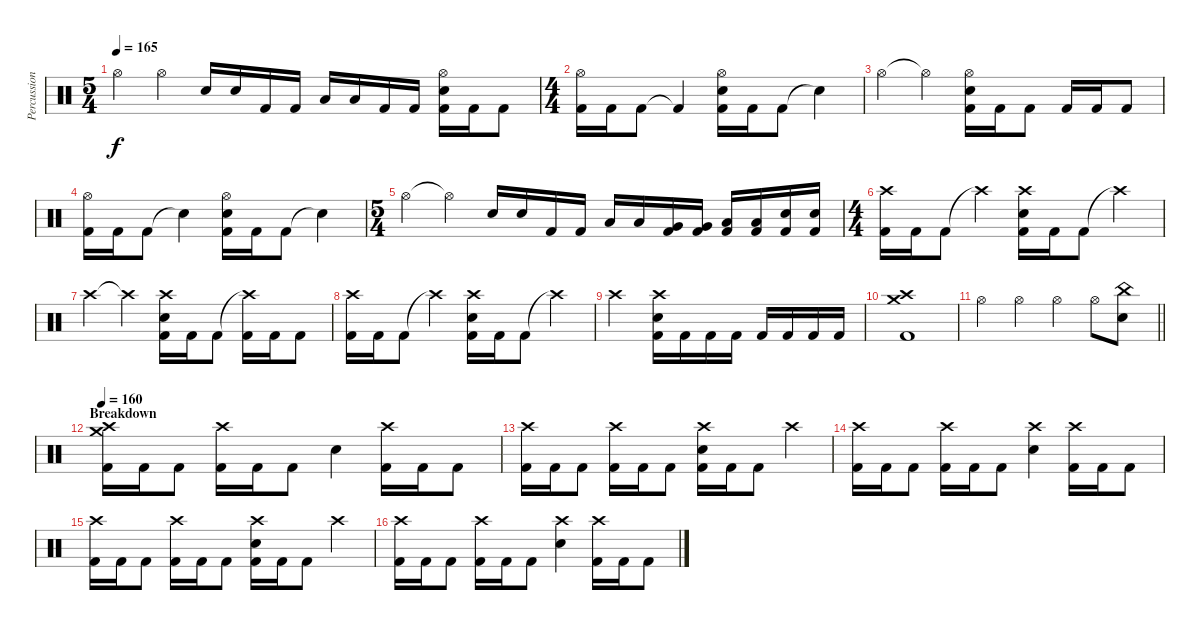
\track ("Percussion" "Percussion") {instrument percussion}
\staff {score}
\articulation defaults
\ts (5 4)
\tempo 165
\clef neutral
\ks c "Hi-Hat (open)".4{dy f} "Hi-Hat (open)".4 "Electric Snare (hit)".16 "Electric Snare (hit)".16 "Kick (hit) 2".16 "Kick (hit) 2".16 "Low Tom (hit)".16 "Low Tom (hit)".16 "Kick (hit) 2".16 "Kick (hit) 2".16
("Hi-Hat (open)" "Electric Snare (hit)" "Kick (hit) 2").16 "Kick (hit) 2".16 "Kick (hit) 2".8 |
\ts (4 4)
("Hi-Hat (open)" "Kick (hit) 2").16 "Kick (hit) 2".16 "Kick (hit) 2".8 "Kick (hit) 2"{t}.4 ("Hi-Hat (open)" "Electric Snare (hit)" "Kick (hit) 2").16 "Kick (hit) 2".16 "Kick (hit) 2".8 "Snare (hit)"{t}.4 |
"Hi-Hat (open)".4 "Hi-Hat (open)"{t}.4 ("Hi-Hat (open)" "Electric Snare (hit)" "Kick (hit) 2").16 "Kick (hit) 2".16 "Kick (hit) 2".8 "Kick (hit) 2".16 "Kick (hit) 2".16 "Kick (hit) 2".8 |
("Hi-Hat (open)" "Kick (hit) 2").16 "Kick (hit) 2".16 "Kick (hit) 2".8 "Snare (hit)"{t}.4 ("Hi-Hat (open)" "Electric Snare (hit)" "Kick (hit) 2").16 "Kick (hit) 2".16 "Kick (hit) 2".8 "Snare (hit)"{t}.4 |
\ts (5 4)
"Hi-Hat (open)".4 "Hi-Hat (open)"{t}.4 "Electric Snare (hit)".16 "Electric Snare (hit)".16 "Kick (hit) 2".16 "Kick (hit) 2".16 "Low Tom (hit)".16 "Low Tom (hit)".16 ("Very Low Tom (hit)" "Kick (hit) 2").16 ("Very Low Tom (hit)" "Kick (hit) 2").16 ("Low Floor Tom (hit)" "Kick (hit) 2").16 ("Low Floor Tom (hit)" "Kick (hit) 2").16 ("Electric Snare (hit)" "Kick (hit) 2").16 ("Electric Snare (hit)" "Kick (hit) 2").16 |
\ts (4 4)
("Crash high (hit)" "Kick (hit) 2").16 "Kick (hit) 2".16 "Kick (hit) 2".8 "Crash high (hit)"{t}.4 ("Crash high (hit)" "Electric Snare (hit)" "Kick (hit) 2").16 "Kick (hit) 2".16 "Kick (hit) 2".8 "Crash high (hit)"{t}.4 |
"Crash high (hit)".4 "Crash high (hit)"{t}.4 ("Crash high (hit)" "Electric Snare (hit)" "Kick (hit) 2").16 "Kick (hit) 2".16 "Kick (hit) 2".8 ("Crash high (hit)"{t} "Kick (hit) 2").16 "Kick (hit) 2".16 "Kick (hit) 2".8 |
("Crash high (hit)" "Kick (hit) 2").16 "Kick (hit) 2".16 "Kick (hit) 2".8 "Crash high (hit)"{t}.4 ("Crash high (hit)" "Electric Snare (hit)" "Kick (hit) 2").16 "Kick (hit) 2".16 "Kick (hit) 2".8 "Crash high (hit)"{t}.4 |
"Crash high (hit)".2 ("Crash high (hit)" "Electric Snare (hit)" "Kick (hit) 2").16 "Kick (hit) 2".16 "Kick (hit) 2".16 "Kick (hit) 2".16 "Kick (hit) 2".16 "Kick (hit) 2".16 "Kick (hit) 2".16 "Kick (hit) 2".16 |
("Crash medium (hit)" "Crash high (hit)" "Kick (hit) 2").1 |
\barLineRight lightlight "Hi-Hat (open)".4 "Hi-Hat (open)".4 "Hi-Hat (open)".4 "Hi-Hat (open)".8
("China (hit)" "Electric Snare (hit)").8 |
\section ("" "Breakdown")
\tempo 160
("Crash medium (hit)" "Crash high (hit)" "Kick (hit) 2").16 "Kick (hit) 2".16 "Kick (hit) 2".8 ("Crash high (hit)" "Kick (hit) 2").16 "Kick (hit) 2".16 "Kick (hit) 2".8 "Electric Snare (hit)".4 ("Crash high (hit)" "Kick (hit) 2").16 "Kick (hit) 2".16 "Kick (hit) 2".8 |
("Crash high (hit)" "Kick (hit) 2").16 "Kick (hit) 2".16 "Kick (hit) 2".8 ("Crash high (hit)" "Kick (hit) 2").16 "Kick (hit) 2".16 "Kick (hit) 2".8 ("Crash high (hit)" "Electric Snare (hit)" "Kick (hit) 2").16 "Kick (hit) 2".16 "Kick (hit) 2".8 "Crash high (hit)".4 |
("Crash high (hit)" "Kick (hit) 2").16 "Kick (hit) 2".16 "Kick (hit) 2".8 ("Crash high (hit)" "Kick (hit) 2").16 "Kick (hit) 2".16 "Kick (hit) 2".8 ("Crash high (hit)" "Electric Snare (hit)").4 ("Crash high (hit)" "Kick (hit) 2").16 "Kick (hit) 2".16 "Kick (hit) 2".8 |
("Crash high (hit)" "Kick (hit) 2").16 "Kick (hit) 2".16 "Kick (hit) 2".8 ("Crash high (hit)" "Kick (hit) 2").16 "Kick (hit) 2".16 "Kick (hit) 2".8 ("Crash high (hit)" "Electric Snare (hit)" "Kick (hit) 2").16 "Kick (hit) 2".16 "Kick (hit) 2".8 "Crash high (hit)".4 |
("Crash high (hit)" "Kick (hit) 2").16 "Kick (hit) 2".16 "Kick (hit) 2".8 ("Crash high (hit)" "Kick (hit) 2").16 "Kick (hit) 2".16 "Kick (hit) 2".8 ("Crash high (hit)" "Electric Snare (hit)").4 ("Crash high (hit)" "Kick (hit) 2").16 "Kick (hit) 2".16 "Kick (hit) 2".8
